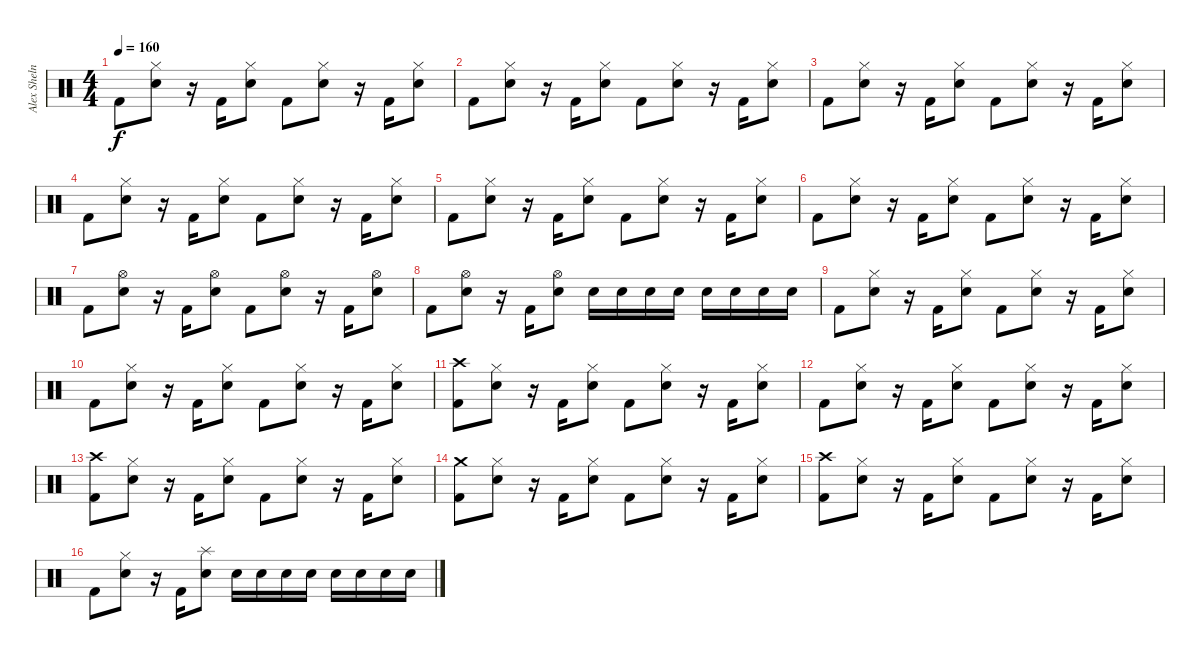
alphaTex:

\track ("Alex Shelnutt" "Alex Sheln") {instrument percussion}
\staff {score}
\articulation defaults
\ts (4 4)
\tempo 160
\clef neutral
\ks c "Kick (hit) 2".8{dy f}
("Hi-Hat (closed)" "Electric Snare (hit)").8 r.16 "Kick (hit) 2".16 ("Hi-Hat (closed)" "Electric Snare (hit)").8 "Kick (hit) 2".8 ("Hi-Hat (closed)" "Electric Snare (hit)").8 r.16 "Kick (hit) 2".16 ("Hi-Hat (closed)" "Electric Snare (hit)").8 |
"Kick (hit) 2".8 ("Hi-Hat (closed)" "Electric Snare (hit)").8 r.16 "Kick (hit) 2".16 ("Hi-Hat (closed)" "Electric Snare (hit)").8 "Kick (hit) 2".8 ("Hi-Hat (closed)" "Electric Snare (hit)").8 r.16 "Kick (hit) 2".16 ("Hi-Hat (closed)" "Electric Snare (hit)").8 |
"Kick (hit) 2".8 ("Hi-Hat (closed)" "Electric Snare (hit)").8 r.16 "Kick (hit) 2".16 ("Hi-Hat (closed)" "Electric Snare (hit)").8 "Kick (hit) 2".8 ("Hi-Hat (closed)" "Electric Snare (hit)").8 r.16 "Kick (hit) 2".16 ("Hi-Hat (closed)" "Electric Snare (hit)").8 |
"Kick (hit) 2".8 ("Hi-Hat (closed)" "Electric Snare (hit)").8 r.16 "Kick (hit) 2".16 ("Hi-Hat (closed)" "Electric Snare (hit)").8 "Kick (hit) 2".8 ("Hi-Hat (closed)" "Electric Snare (hit)").8 r.16 "Kick (hit) 2".16 ("Hi-Hat (closed)" "Electric Snare (hit)").8 |
"Kick (hit) 2".8 ("Hi-Hat (closed)" "Electric Snare (hit)").8 r.16 "Kick (hit) 2".16 ("Hi-Hat (closed)" "Electric Snare (hit)").8 "Kick (hit) 2".8 ("Hi-Hat (closed)" "Electric Snare (hit)").8 r.16 "Kick (hit) 2".16 ("Hi-Hat (closed)" "Electric Snare (hit)").8 |
"Kick (hit) 2".8 ("Hi-Hat (closed)" "Electric Snare (hit)").8 r.16 "Kick (hit) 2".16 ("Hi-Hat (closed)" "Electric Snare (hit)").8 "Kick (hit) 2".8 ("Hi-Hat (closed)" "Electric Snare (hit)").8 r.16 "Kick (hit) 2".16 ("Hi-Hat (closed)" "Electric Snare (hit)").8 |
"Kick (hit) 2".8 ("Hi-Hat (open)" "Electric Snare (hit)").8 r.16 "Kick (hit) 2".16 ("Hi-Hat (open)" "Electric Snare (hit)").8 "Kick (hit) 2".8 ("Hi-Hat (open)" "Electric Snare (hit)").8 r.16 "Kick (hit) 2".16 ("Hi-Hat (open)" "Electric Snare (hit)").8 |
"Kick (hit) 2".8 ("Hi-Hat (open)" "Electric Snare (hit)").8 r.16 "Kick (hit) 2".16 ("Hi-Hat (open)" "Electric Snare (hit)").8 "Electric Snare (hit)".16 "Electric Snare (hit)".16 "Electric Snare (hit)".16 "Electric Snare (hit)".16 "Electric Snare (hit)".16 "Electric Snare (hit)".16 "Electric Snare (hit)".16 "Electric Snare (hit)".16 |
"Kick (hit) 2".8 ("Hi-Hat (closed)" "Electric Snare (hit)").8 r.16 "Kick (hit) 2".16 ("Hi-Hat (closed)" "Electric Snare (hit)").8 "Kick (hit) 2".8 ("Hi-Hat (closed)" "Electric Snare (hit)").8 r.16 "Kick (hit) 2".16 ("Hi-Hat (closed)" "Electric Snare (hit)").8 |
"Kick (hit) 2".8 ("Hi-Hat (closed)" "Electric Snare (hit)").8 r.16 "Kick (hit) 2".16 ("Hi-Hat (closed)" "Electric Snare (hit)").8 "Kick (hit) 2".8 ("Hi-Hat (closed)" "Electric Snare (hit)").8 r.16 "Kick (hit) 2".16 ("Hi-Hat (closed)" "Electric Snare (hit)").8 |
("Crash high (hit)" "Kick (hit) 2").8 ("Hi-Hat (closed)" "Electric Snare (hit)").8 r.16 "Kick (hit) 2".16 ("Hi-Hat (closed)" "Electric Snare (hit)").8 "Kick (hit) 2".8 ("Hi-Hat (closed)" "Electric Snare (hit)").8 r.16 "Kick (hit) 2".16 ("Hi-Hat (closed)" "Electric Snare (hit)").8 |
"Kick (hit) 2".8 ("Hi-Hat (closed)" "Electric Snare (hit)").8 r.16 "Kick (hit) 2".16 ("Hi-Hat (closed)" "Electric Snare (hit)").8 "Kick (hit) 2".8 ("Hi-Hat (closed)" "Electric Snare (hit)").8 r.16 "Kick (hit) 2".16 ("Hi-Hat (closed)" "Electric Snare (hit)").8 |
("Crash high (hit)" "Kick (hit) 2").8 ("Hi-Hat (closed)" "Electric Snare (hit)").8 r.16 "Kick (hit) 2".16 ("Hi-Hat (closed)" "Electric Snare (hit)").8 "Kick (hit) 2".8 ("Hi-Hat (closed)" "Electric Snare (hit)").8 r.16 "Kick (hit) 2".16 ("Hi-Hat (closed)" "Electric Snare (hit)").8 |
("Crash medium (hit)" "Kick (hit) 2").8 ("Hi-Hat (closed)" "Electric Snare (hit)").8 r.16 "Kick (hit) 2".16 ("Hi-Hat (closed)" "Electric Snare (hit)").8 "Kick (hit) 2".8 ("Hi-Hat (closed)" "Electric Snare (hit)").8 r.16 "Kick (hit) 2".16 ("Hi-Hat (closed)" "Electric Snare (hit)").8 |
("Crash high (hit)" "Kick (hit) 2").8 ("Hi-Hat (closed)" "Electric Snare (hit)").8 r.16 "Kick (hit) 2".16 ("Hi-Hat (closed)" "Electric Snare (hit)").8 "Kick (hit) 2".8 ("Hi-Hat (closed)" "Electric Snare (hit)").8 r.16 "Kick (hit) 2".16 ("Hi-Hat (closed)" "Electric Snare (hit)").8 |
"Kick (hit) 2".8 ("Hi-Hat (closed)" "Electric Snare (hit)").8 r.16 "Kick (hit) 2".16 ("Splash (hit)" "Electric Snare (hit)").8 "Electric Snare (hit)".16 "Electric Snare (hit)".16 "Electric Snare (hit)".16 "Electric Snare (hit)".16 "Electric Snare (hit)".16 "Electric Snare (hit)".16 "Electric Snare (hit)".16 "Electric Snare (hit)".16
